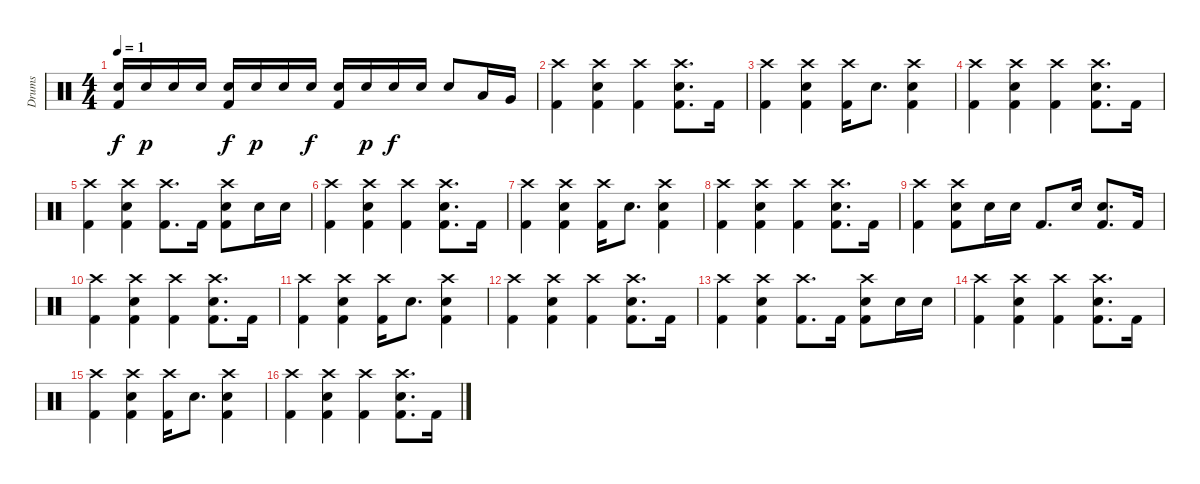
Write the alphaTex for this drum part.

\track ("Drums" "Drums") {instrument percussion}
\staff {score}
\articulation defaults
\ts (4 4)
\tempo 1
\clef neutral
\ks c
("Snare (hit) 2" "Kick (hit) 2").16{dy f} "Snare (hit) 2".16{dy p} "Snare (hit) 2".16 "Snare (hit) 2".16 ("Snare (hit) 2" "Kick (hit) 2").16{dy f} "Snare (hit) 2".16{dy p} "Snare (hit) 2".16 "Snare (hit) 2".16{dy f} ("Snare (hit) 2" "Kick (hit) 2").16 "Snare (hit) 2".16{dy p} "Snare (hit) 2".16{dy f} "Snare (hit) 2".16 "Snare (hit) 2".8 "Low Tom (hit)".16 "Very Low Tom (hit)".16 |
("Kick (hit) 2" "Crash high (hit)").4 ("Kick (hit) 2" "Crash high (hit)" "Snare (hit) 2").4 ("Kick (hit) 2" "Crash high (hit)").4 ("Kick (hit) 2" "Crash high (hit)" "Snare (hit) 2").8{d} "Kick (hit) 2".16 |
("Kick (hit) 2" "Crash high (hit)").4 ("Kick (hit) 2" "Crash high (hit)" "Snare (hit) 2").4 ("Kick (hit) 2" "Crash high (hit)").16 "Snare (hit) 2".8{d} ("Kick (hit) 2" "Crash high (hit)" "Snare (hit) 2").4 |
("Kick (hit) 2" "Crash high (hit)").4 ("Kick (hit) 2" "Crash high (hit)" "Snare (hit) 2").4 ("Kick (hit) 2" "Crash high (hit)").4 ("Kick (hit) 2" "Crash high (hit)" "Snare (hit) 2").8{d} "Kick (hit) 2".16 |
("Kick (hit) 2" "Crash high (hit)").4 ("Kick (hit) 2" "Crash high (hit)" "Snare (hit) 2").4 ("Kick (hit) 2" "Crash high (hit)").8{d} "Kick (hit) 2".16 ("Kick (hit) 2" "Crash high (hit)" "Snare (hit) 2").8 "Snare (hit) 2".16 "Snare (hit) 2".16 |
("Kick (hit) 2" "Crash high (hit)").4 ("Kick (hit) 2" "Crash high (hit)" "Snare (hit) 2").4 ("Kick (hit) 2" "Crash high (hit)").4 ("Kick (hit) 2" "Crash high (hit)" "Snare (hit) 2").8{d} "Kick (hit) 2".16 |
("Kick (hit) 2" "Crash high (hit)").4 ("Kick (hit) 2" "Crash high (hit)" "Snare (hit) 2").4 ("Kick (hit) 2" "Crash high (hit)").16 "Snare (hit) 2".8{d} ("Kick (hit) 2" "Crash high (hit)" "Snare (hit) 2").4 |
("Kick (hit) 2" "Crash high (hit)").4 ("Kick (hit) 2" "Crash high (hit)" "Snare (hit) 2").4 ("Kick (hit) 2" "Crash high (hit)").4 ("Kick (hit) 2" "Crash high (hit)" "Snare (hit) 2").8{d} "Kick (hit) 2".16 |
("Kick (hit) 2" "Crash high (hit)").4 ("Kick (hit) 2" "Crash high (hit)" "Snare (hit) 2").8 "Snare (hit) 2".16 "Snare (hit) 2".16 "Kick (hit) 2".8{d} "Snare (hit) 2".16 ("Snare (hit) 2" "Kick (hit) 2").8{d} "Kick (hit) 2".16 |
("Kick (hit) 2" "Crash high (hit)").4 ("Kick (hit) 2" "Crash high (hit)" "Snare (hit) 2").4 ("Kick (hit) 2" "Crash high (hit)").4 ("Kick (hit) 2" "Crash high (hit)" "Snare (hit) 2").8{d} "Kick (hit) 2".16 |
("Kick (hit) 2" "Crash high (hit)").4 ("Kick (hit) 2" "Crash high (hit)" "Snare (hit) 2").4 ("Kick (hit) 2" "Crash high (hit)").16 "Snare (hit) 2".8{d} ("Kick (hit) 2" "Crash high (hit)" "Snare (hit) 2").4 |
("Kick (hit) 2" "Crash high (hit)").4 ("Kick (hit) 2" "Crash high (hit)" "Snare (hit) 2").4 ("Kick (hit) 2" "Crash high (hit)").4 ("Kick (hit) 2" "Crash high (hit)" "Snare (hit) 2").8{d} "Kick (hit) 2".16 |
("Kick (hit) 2" "Crash high (hit)").4 ("Kick (hit) 2" "Crash high (hit)" "Snare (hit) 2").4 ("Kick (hit) 2" "Crash high (hit)").8{d} "Kick (hit) 2".16 ("Kick (hit) 2" "Crash high (hit)" "Snare (hit) 2").8 "Snare (hit) 2".16 "Snare (hit) 2".16 |
("Kick (hit) 2" "Crash high (hit)").4 ("Kick (hit) 2" "Crash high (hit)" "Snare (hit) 2").4 ("Kick (hit) 2" "Crash high (hit)").4 ("Kick (hit) 2" "Crash high (hit)" "Snare (hit) 2").8{d} "Kick (hit) 2".16 |
("Kick (hit) 2" "Crash high (hit)").4 ("Kick (hit) 2" "Crash high (hit)" "Snare (hit) 2").4 ("Kick (hit) 2" "Crash high (hit)").16 "Snare (hit) 2".8{d} ("Kick (hit) 2" "Crash high (hit)" "Snare (hit) 2").4 |
("Kick (hit) 2" "Crash high (hit)").4 ("Kick (hit) 2" "Crash high (hit)" "Snare (hit) 2").4 ("Kick (hit) 2" "Crash high (hit)").4 ("Kick (hit) 2" "Crash high (hit)" "Snare (hit) 2").8{d} "Kick (hit) 2".16
